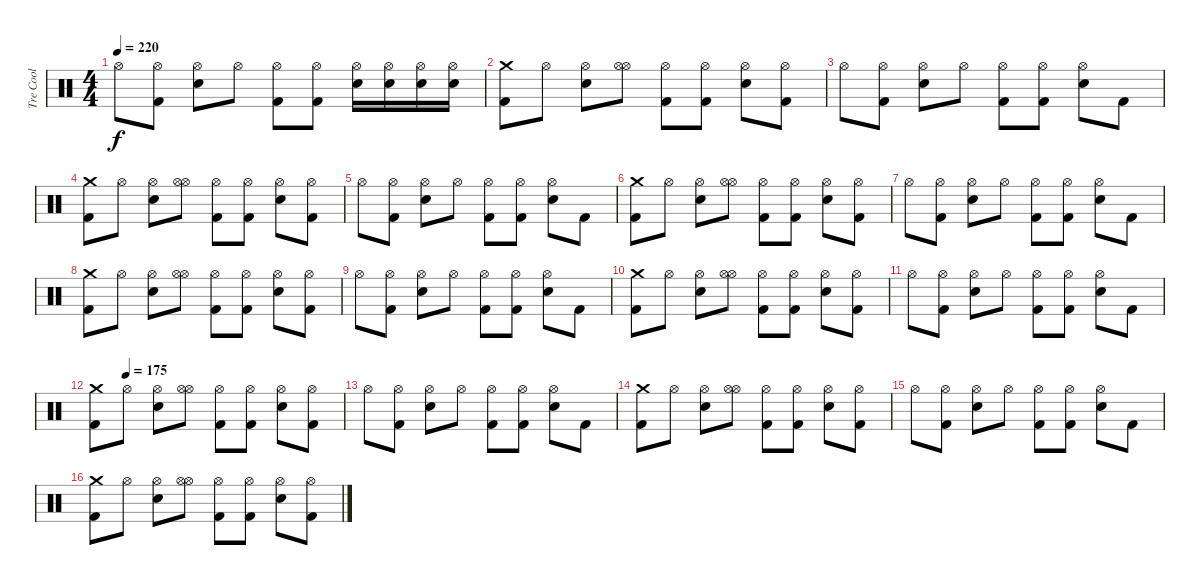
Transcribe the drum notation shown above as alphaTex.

\track ("Tre Cool" "Tre Cool") {instrument percussion}
\staff {score}
\articulation defaults
\ts (4 4)
\tempo 220
\clef neutral
\ks c "Hi-Hat (open)".8{dy f}
("Kick (hit) 2" "Hi-Hat (open)").8 ("Snare (hit) 2" "Hi-Hat (open)").8 "Hi-Hat (open)".8 ("Kick (hit) 2" "Hi-Hat (open)").8 ("Kick (hit) 2" "Hi-Hat (open)").8 ("Snare (hit) 2" "Hi-Hat (open)").16 ("Snare (hit) 2" "Hi-Hat (open)").16 ("Snare (hit) 2" "Hi-Hat (open)").16 ("Snare (hit) 2" "Hi-Hat (open)").16 |
("Kick (hit) 2" "Crash medium (hit)").8 "Hi-Hat (open)".8 ("Snare (hit) 2" "Hi-Hat (open)").8 ("Hi-Hat (open)" "Hi-Hat (open)").8 ("Kick (hit) 2" "Hi-Hat (open)").8 ("Kick (hit) 2" "Hi-Hat (open)").8 ("Snare (hit) 2" "Hi-Hat (open)").8 ("Kick (hit) 2" "Hi-Hat (open)").8 |
"Hi-Hat (open)".8 ("Kick (hit) 2" "Hi-Hat (open)").8 ("Snare (hit) 2" "Hi-Hat (open)").8 "Hi-Hat (open)".8 ("Kick (hit) 2" "Hi-Hat (open)").8 ("Kick (hit) 2" "Hi-Hat (open)").8 ("Snare (hit) 2" "Hi-Hat (open)").8 "Kick (hit) 2".8 |
("Kick (hit) 2" "Crash medium (hit)").8 "Hi-Hat (open)".8 ("Snare (hit) 2" "Hi-Hat (open)").8 ("Hi-Hat (open)" "Hi-Hat (open)").8 ("Kick (hit) 2" "Hi-Hat (open)").8 ("Kick (hit) 2" "Hi-Hat (open)").8 ("Snare (hit) 2" "Hi-Hat (open)").8 ("Kick (hit) 2" "Hi-Hat (open)").8 |
"Hi-Hat (open)".8 ("Kick (hit) 2" "Hi-Hat (open)").8 ("Snare (hit) 2" "Hi-Hat (open)").8 "Hi-Hat (open)".8 ("Kick (hit) 2" "Hi-Hat (open)").8 ("Kick (hit) 2" "Hi-Hat (open)").8 ("Snare (hit) 2" "Hi-Hat (open)").8 "Kick (hit) 2".8 |
("Kick (hit) 2" "Crash medium (hit)").8 "Hi-Hat (open)".8 ("Snare (hit) 2" "Hi-Hat (open)").8 ("Hi-Hat (open)" "Hi-Hat (open)").8 ("Kick (hit) 2" "Hi-Hat (open)").8 ("Kick (hit) 2" "Hi-Hat (open)").8 ("Snare (hit) 2" "Hi-Hat (open)").8 ("Kick (hit) 2" "Hi-Hat (open)").8 |
"Hi-Hat (open)".8 ("Kick (hit) 2" "Hi-Hat (open)").8 ("Snare (hit) 2" "Hi-Hat (open)").8 "Hi-Hat (open)".8 ("Kick (hit) 2" "Hi-Hat (open)").8 ("Kick (hit) 2" "Hi-Hat (open)").8 ("Snare (hit) 2" "Hi-Hat (open)").8 "Kick (hit) 2".8 |
("Kick (hit) 2" "Crash medium (hit)").8 "Hi-Hat (open)".8 ("Snare (hit) 2" "Hi-Hat (open)").8 ("Hi-Hat (open)" "Hi-Hat (open)").8 ("Kick (hit) 2" "Hi-Hat (open)").8 ("Kick (hit) 2" "Hi-Hat (open)").8 ("Snare (hit) 2" "Hi-Hat (open)").8 ("Kick (hit) 2" "Hi-Hat (open)").8 |
"Hi-Hat (open)".8 ("Kick (hit) 2" "Hi-Hat (open)").8 ("Snare (hit) 2" "Hi-Hat (open)").8 "Hi-Hat (open)".8 ("Kick (hit) 2" "Hi-Hat (open)").8 ("Kick (hit) 2" "Hi-Hat (open)").8 ("Snare (hit) 2" "Hi-Hat (open)").8 "Kick (hit) 2".8 |
("Kick (hit) 2" "Crash medium (hit)").8 "Hi-Hat (open)".8 ("Snare (hit) 2" "Hi-Hat (open)").8 ("Hi-Hat (open)" "Hi-Hat (open)").8 ("Kick (hit) 2" "Hi-Hat (open)").8 ("Kick (hit) 2" "Hi-Hat (open)").8 ("Snare (hit) 2" "Hi-Hat (open)").8 ("Kick (hit) 2" "Hi-Hat (open)").8 |
"Hi-Hat (open)".8 ("Kick (hit) 2" "Hi-Hat (open)").8 ("Snare (hit) 2" "Hi-Hat (open)").8 "Hi-Hat (open)".8 ("Kick (hit) 2" "Hi-Hat (open)").8 ("Kick (hit) 2" "Hi-Hat (open)").8 ("Snare (hit) 2" "Hi-Hat (open)").8 "Kick (hit) 2".8 |
\tempo (175 0.125)
("Kick (hit) 2" "Crash medium (hit)").8 "Hi-Hat (open)".8 ("Snare (hit) 2" "Hi-Hat (open)").8 ("Hi-Hat (open)" "Hi-Hat (open)").8 ("Kick (hit) 2" "Hi-Hat (open)").8 ("Kick (hit) 2" "Hi-Hat (open)").8 ("Snare (hit) 2" "Hi-Hat (open)").8 ("Kick (hit) 2" "Hi-Hat (open)").8 |
"Hi-Hat (open)".8 ("Kick (hit) 2" "Hi-Hat (open)").8 ("Snare (hit) 2" "Hi-Hat (open)").8 "Hi-Hat (open)".8 ("Kick (hit) 2" "Hi-Hat (open)").8 ("Kick (hit) 2" "Hi-Hat (open)").8 ("Snare (hit) 2" "Hi-Hat (open)").8 "Kick (hit) 2".8 |
("Kick (hit) 2" "Crash medium (hit)").8 "Hi-Hat (open)".8 ("Snare (hit) 2" "Hi-Hat (open)").8 ("Hi-Hat (open)" "Hi-Hat (open)").8 ("Kick (hit) 2" "Hi-Hat (open)").8 ("Kick (hit) 2" "Hi-Hat (open)").8 ("Snare (hit) 2" "Hi-Hat (open)").8 ("Kick (hit) 2" "Hi-Hat (open)").8 |
"Hi-Hat (open)".8 ("Kick (hit) 2" "Hi-Hat (open)").8 ("Snare (hit) 2" "Hi-Hat (open)").8 "Hi-Hat (open)".8 ("Kick (hit) 2" "Hi-Hat (open)").8 ("Kick (hit) 2" "Hi-Hat (open)").8 ("Snare (hit) 2" "Hi-Hat (open)").8 "Kick (hit) 2".8 |
("Kick (hit) 2" "Crash medium (hit)").8 "Hi-Hat (open)".8 ("Snare (hit) 2" "Hi-Hat (open)").8 ("Hi-Hat (open)" "Hi-Hat (open)").8 ("Kick (hit) 2" "Hi-Hat (open)").8 ("Kick (hit) 2" "Hi-Hat (open)").8 ("Snare (hit) 2" "Hi-Hat (open)").8 ("Kick (hit) 2" "Hi-Hat (open)").8
